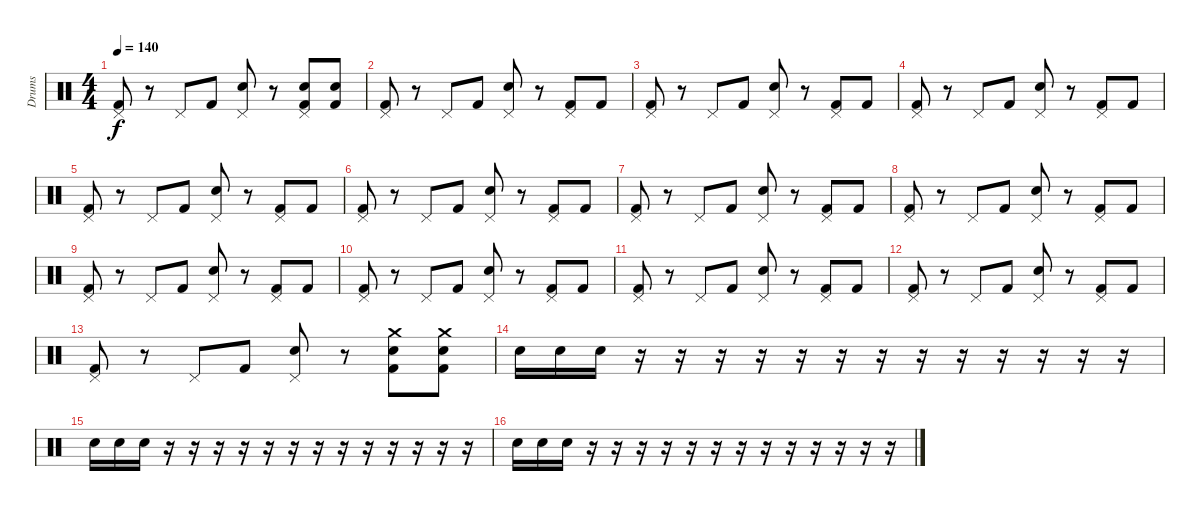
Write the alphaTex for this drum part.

\track ("Drums" "Drums") {instrument percussion}
\staff {score}
\articulation defaults
\ts (4 4)
\tempo 140
\clef neutral
\ks c
("Pedal Hi-Hat (hit)" "Kick (hit) 2").8{dy f} r.8 "Pedal Hi-Hat (hit)".8 "Kick (hit) 2".8 ("Pedal Hi-Hat (hit)" "Snare (hit) 2").8 r.8 ("Pedal Hi-Hat (hit)" "Snare (hit) 2" "Kick (hit) 2").8 ("Snare (hit) 2" "Kick (hit) 2").8 |
("Pedal Hi-Hat (hit)" "Kick (hit) 2").8 r.8 "Pedal Hi-Hat (hit)".8 "Kick (hit) 2".8 ("Pedal Hi-Hat (hit)" "Snare (hit) 2").8 r.8 ("Pedal Hi-Hat (hit)" "Kick (hit) 2").8 "Kick (hit) 2".8 |
("Pedal Hi-Hat (hit)" "Kick (hit) 2").8 r.8 "Pedal Hi-Hat (hit)".8 "Kick (hit) 2".8 ("Pedal Hi-Hat (hit)" "Snare (hit) 2").8 r.8 ("Pedal Hi-Hat (hit)" "Kick (hit) 2").8 "Kick (hit) 2".8 |
("Pedal Hi-Hat (hit)" "Kick (hit) 2").8 r.8 "Pedal Hi-Hat (hit)".8 "Kick (hit) 2".8 ("Pedal Hi-Hat (hit)" "Snare (hit) 2").8 r.8 ("Pedal Hi-Hat (hit)" "Kick (hit) 2").8 "Kick (hit) 2".8 |
("Pedal Hi-Hat (hit)" "Kick (hit) 2").8 r.8 "Pedal Hi-Hat (hit)".8 "Kick (hit) 2".8 ("Pedal Hi-Hat (hit)" "Snare (hit) 2").8 r.8 ("Pedal Hi-Hat (hit)" "Kick (hit) 2").8 "Kick (hit) 2".8 |
("Pedal Hi-Hat (hit)" "Kick (hit) 2").8 r.8 "Pedal Hi-Hat (hit)".8 "Kick (hit) 2".8 ("Pedal Hi-Hat (hit)" "Snare (hit) 2").8 r.8 ("Pedal Hi-Hat (hit)" "Kick (hit) 2").8 "Kick (hit) 2".8 |
("Pedal Hi-Hat (hit)" "Kick (hit) 2").8 r.8 "Pedal Hi-Hat (hit)".8 "Kick (hit) 2".8 ("Pedal Hi-Hat (hit)" "Snare (hit) 2").8 r.8 ("Pedal Hi-Hat (hit)" "Kick (hit) 2").8 "Kick (hit) 2".8 |
("Pedal Hi-Hat (hit)" "Kick (hit) 2").8 r.8 "Pedal Hi-Hat (hit)".8 "Kick (hit) 2".8 ("Pedal Hi-Hat (hit)" "Snare (hit) 2").8 r.8 ("Pedal Hi-Hat (hit)" "Kick (hit) 2").8 "Kick (hit) 2".8 |
("Pedal Hi-Hat (hit)" "Kick (hit) 2").8 r.8 "Pedal Hi-Hat (hit)".8 "Kick (hit) 2".8 ("Pedal Hi-Hat (hit)" "Snare (hit) 2").8 r.8 ("Pedal Hi-Hat (hit)" "Kick (hit) 2").8 "Kick (hit) 2".8 |
("Pedal Hi-Hat (hit)" "Kick (hit) 2").8 r.8 "Pedal Hi-Hat (hit)".8 "Kick (hit) 2".8 ("Pedal Hi-Hat (hit)" "Snare (hit) 2").8 r.8 ("Pedal Hi-Hat (hit)" "Kick (hit) 2").8 "Kick (hit) 2".8 |
("Pedal Hi-Hat (hit)" "Kick (hit) 2").8 r.8 "Pedal Hi-Hat (hit)".8 "Kick (hit) 2".8 ("Pedal Hi-Hat (hit)" "Snare (hit) 2").8 r.8 ("Pedal Hi-Hat (hit)" "Kick (hit) 2").8 "Kick (hit) 2".8 |
("Pedal Hi-Hat (hit)" "Kick (hit) 2").8 r.8 "Pedal Hi-Hat (hit)".8 "Kick (hit) 2".8 ("Pedal Hi-Hat (hit)" "Snare (hit) 2").8 r.8 ("Pedal Hi-Hat (hit)" "Kick (hit) 2").8 "Kick (hit) 2".8 |
("Pedal Hi-Hat (hit)" "Kick (hit) 2").8 r.8 "Pedal Hi-Hat (hit)".8 "Kick (hit) 2".8 ("Pedal Hi-Hat (hit)" "Snare (hit) 2").8 r.8 ("Crash medium (hit)" "Snare (hit) 2" "Kick (hit) 2").8 ("Crash medium (hit)" "Snare (hit) 2" "Kick (hit) 2").8 |
"Snare (hit) 2".16 "Snare (hit) 2".16 "Snare (hit) 2".16 r.16 r.16 r.16 r.16 r.16 r.16 r.16 r.16 r.16 r.16 r.16 r.16 r.16 |
"Snare (hit) 2".16 "Snare (hit) 2".16 "Snare (hit) 2".16 r.16 r.16 r.16 r.16 r.16 r.16 r.16 r.16 r.16 r.16 r.16 r.16 r.16 |
"Snare (hit) 2".16 "Snare (hit) 2".16 "Snare (hit) 2".16 r.16 r.16 r.16 r.16 r.16 r.16 r.16 r.16 r.16 r.16 r.16 r.16 r.16
